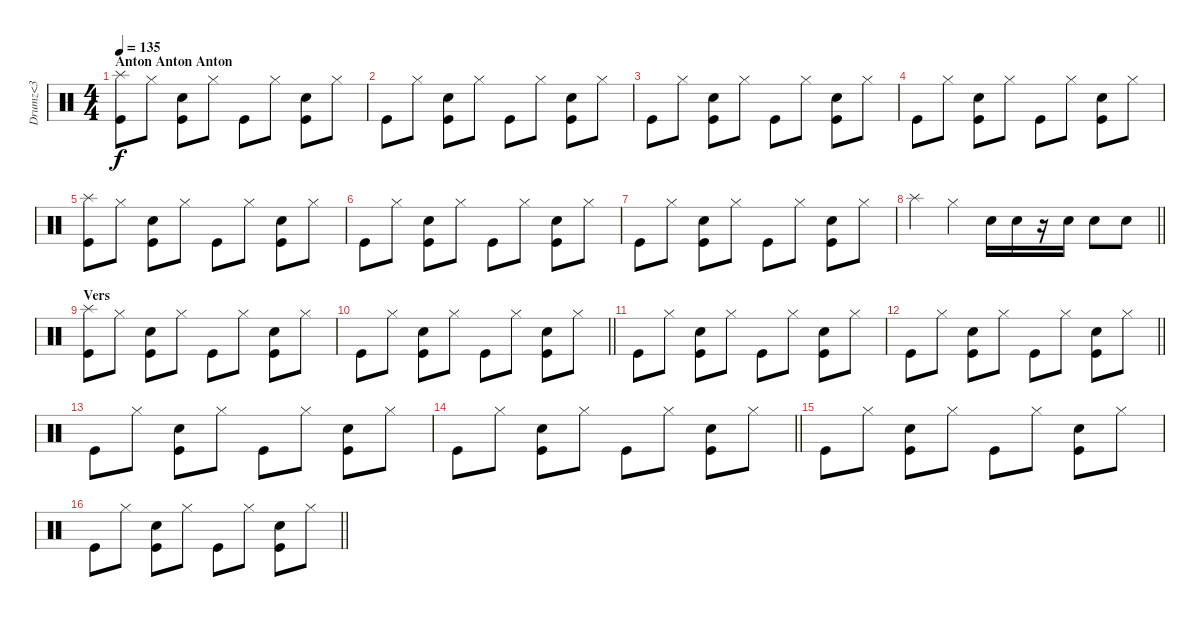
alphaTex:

\track ("Drumz<3" "Drumz<3") {instrument percussion}
\staff {score}
\articulation defaults
\ts (4 4)
\section ("" "Anton Anton Anton")
\tempo 135
\clef neutral
\ks c
("Splash (hit)" "Kick (hit)").8{dy f} "Hi-Hat (closed)".8 ("Kick (hit)" "Snare (hit) 2").8 "Hi-Hat (closed)".8 "Kick (hit)".8 "Hi-Hat (closed)".8 ("Kick (hit)" "Snare (hit) 2").8 "Hi-Hat (closed)".8 |
"Kick (hit)".8 "Hi-Hat (closed)".8 ("Kick (hit)" "Snare (hit) 2").8 "Hi-Hat (closed)".8 "Kick (hit)".8 "Hi-Hat (closed)".8 ("Kick (hit)" "Snare (hit) 2").8 "Hi-Hat (closed)".8 |
"Kick (hit)".8 "Hi-Hat (closed)".8 ("Kick (hit)" "Snare (hit) 2").8 "Hi-Hat (closed)".8 "Kick (hit)".8 "Hi-Hat (closed)".8 ("Kick (hit)" "Snare (hit) 2").8 "Hi-Hat (closed)".8 |
"Kick (hit)".8 "Hi-Hat (closed)".8 ("Kick (hit)" "Snare (hit) 2").8 "Hi-Hat (closed)".8 "Kick (hit)".8 "Hi-Hat (closed)".8 ("Kick (hit)" "Snare (hit) 2").8 "Hi-Hat (closed)".8 |
("Splash (hit)" "Kick (hit)").8 "Hi-Hat (closed)".8 ("Kick (hit)" "Snare (hit) 2").8 "Hi-Hat (closed)".8 "Kick (hit)".8 "Hi-Hat (closed)".8 ("Kick (hit)" "Snare (hit) 2").8 "Hi-Hat (closed)".8 |
"Kick (hit)".8 "Hi-Hat (closed)".8 ("Kick (hit)" "Snare (hit) 2").8 "Hi-Hat (closed)".8 "Kick (hit)".8 "Hi-Hat (closed)".8 ("Kick (hit)" "Snare (hit) 2").8 "Hi-Hat (closed)".8 |
"Kick (hit)".8 "Hi-Hat (closed)".8 ("Kick (hit)" "Snare (hit) 2").8 "Hi-Hat (closed)".8 "Kick (hit)".8 "Hi-Hat (closed)".8 ("Kick (hit)" "Snare (hit) 2").8 "Hi-Hat (closed)".8 |
\barLineRight lightlight "Splash (hit)".4 "Hi-Hat (closed)".4 "Snare (hit) 2".16 "Snare (hit) 2".16
r.16 "Snare (hit) 2".16 "Snare (hit) 2".8 "Snare (hit) 2".8 |
\section ("" "Vers")
("Splash (hit)" "Kick (hit)").8 "Hi-Hat (closed)".8 ("Kick (hit)" "Snare (hit) 2").8 "Hi-Hat (closed)".8 "Kick (hit)".8 "Hi-Hat (closed)".8 ("Kick (hit)" "Snare (hit) 2").8 "Hi-Hat (closed)".8 |
\barLineRight lightlight "Kick (hit)".8 "Hi-Hat (closed)".8
("Kick (hit)" "Snare (hit) 2").8 "Hi-Hat (closed)".8 "Kick (hit)".8 "Hi-Hat (closed)".8 ("Kick (hit)" "Snare (hit) 2").8 "Hi-Hat (closed)".8 |
"Kick (hit)".8 "Hi-Hat (closed)".8 ("Kick (hit)" "Snare (hit) 2").8 "Hi-Hat (closed)".8 "Kick (hit)".8 "Hi-Hat (closed)".8 ("Kick (hit)" "Snare (hit) 2").8 "Hi-Hat (closed)".8 |
\barLineRight lightlight "Kick (hit)".8 "Hi-Hat (closed)".8
("Kick (hit)" "Snare (hit) 2").8 "Hi-Hat (closed)".8 "Kick (hit)".8 "Hi-Hat (closed)".8 ("Kick (hit)" "Snare (hit) 2").8 "Hi-Hat (closed)".8 |
"Kick (hit)".8 "Hi-Hat (closed)".8 ("Kick (hit)" "Snare (hit) 2").8 "Hi-Hat (closed)".8 "Kick (hit)".8 "Hi-Hat (closed)".8 ("Kick (hit)" "Snare (hit) 2").8 "Hi-Hat (closed)".8 |
\barLineRight lightlight "Kick (hit)".8 "Hi-Hat (closed)".8
("Kick (hit)" "Snare (hit) 2").8 "Hi-Hat (closed)".8 "Kick (hit)".8 "Hi-Hat (closed)".8 ("Kick (hit)" "Snare (hit) 2").8 "Hi-Hat (closed)".8 |
"Kick (hit)".8 "Hi-Hat (closed)".8 ("Kick (hit)" "Snare (hit) 2").8 "Hi-Hat (closed)".8 "Kick (hit)".8 "Hi-Hat (closed)".8 ("Kick (hit)" "Snare (hit) 2").8 "Hi-Hat (closed)".8 |
\barLineRight lightlight "Kick (hit)".8 "Hi-Hat (closed)".8
("Kick (hit)" "Snare (hit) 2").8 "Hi-Hat (closed)".8 "Kick (hit)".8 "Hi-Hat (closed)".8 ("Kick (hit)" "Snare (hit) 2").8 "Hi-Hat (closed)".8
